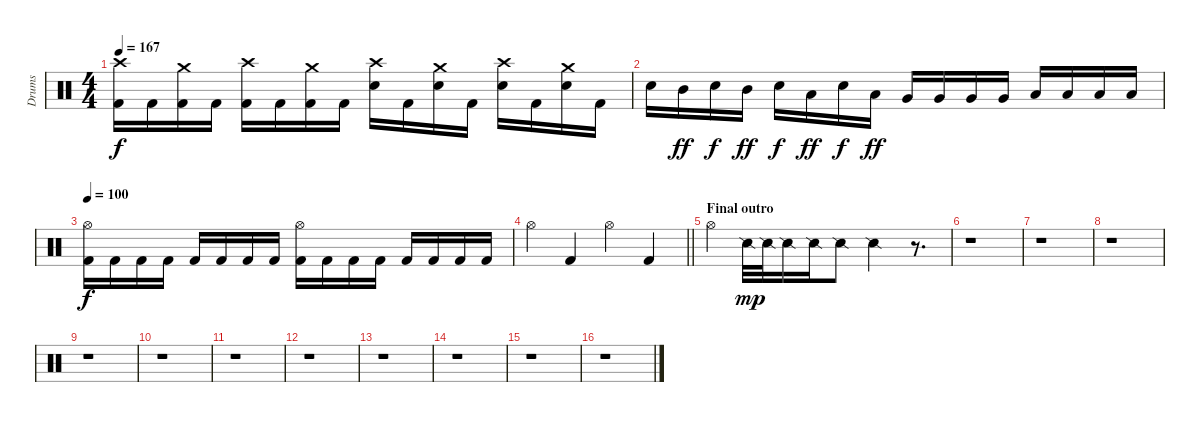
\track ("Drums" "Drums") {instrument percussion}
\staff {score}
\articulation defaults
\ts (4 4)
\tempo 167
\clef neutral
\ks c
("Crash high (hit)" "Kick (hit) 2").16{dy f} "Kick (hit) 2".16 ("Crash medium (hit)" "Kick (hit) 2").16 "Kick (hit) 2".16 ("Crash high (hit)" "Kick (hit) 2").16 "Kick (hit) 2".16 ("Crash medium (hit)" "Kick (hit) 2").16 "Kick (hit) 2".16 ("Crash high (hit)" "Snare (hit) 2").16 "Kick (hit) 2".16 ("Crash medium (hit)" "Snare (hit) 2").16 "Kick (hit) 2".16 ("Crash high (hit)" "Snare (hit) 2").16 "Kick (hit) 2".16 ("Crash medium (hit)" "Snare (hit) 2").16 "Kick (hit) 2".16 |
"Snare (hit) 2".16 "Mid Tom (hit)".16{dy ff} "Snare (hit) 2".16{dy f} "Mid Tom (hit)".16{dy ff} "Snare (hit) 2".16{dy f} "Low Tom (hit)".16{dy ff} "Snare (hit) 2".16{dy f} "Low Tom (hit)".16{dy ff} "Very Low Tom (hit)".16 "Very Low Tom (hit)".16 "Very Low Tom (hit)".16 "Very Low Tom (hit)".16 "Low Floor Tom (hit)".16 "Low Floor Tom (hit)".16 "Low Floor Tom (hit)".16 "Low Floor Tom (hit)".16 |
\tempo 100
("Hi-Hat (open)" "Kick (hit) 2").16{dy f} "Kick (hit) 2".16 "Kick (hit) 2".16 "Kick (hit) 2".16 "Kick (hit) 2".16 "Kick (hit) 2".16 "Kick (hit) 2".16 "Kick (hit) 2".16 ("Hi-Hat (open)" "Kick (hit) 2").16 "Kick (hit) 2".16 "Kick (hit) 2".16 "Kick (hit) 2".16 "Kick (hit) 2".16 "Kick (hit) 2".16 "Kick (hit) 2".16 "Kick (hit) 2".16 |
\barLineRight lightlight "Hi-Hat (open)".4 "Kick (hit) 2".4 "Hi-Hat (open)".4 "Kick (hit) 2".4
|
\section ("" "Final outro")
"Hi-Hat (open)".4 "Snare (side stick) 2".32{dy mp} "Snare (side stick) 2".32 "Snare (side stick) 2".16 "Snare (side stick) 2".16 "Snare (side stick) 2".8 "Snare (side stick) 2".4 r.8{d} |
r.1 |
r.1 |
r.1 |
r.1 |
r.1 |
r.1 |
r.1 |
r.1 |
r.1 |
r.1 |
r.1
